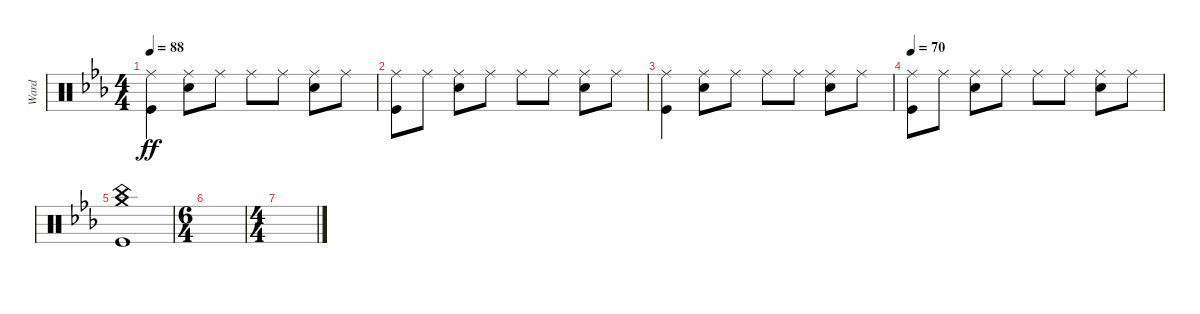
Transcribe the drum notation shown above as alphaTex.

\track ("Ward" "Ward") {instrument percussion}
\staff {score}
\articulation defaults
\ts (4 4)
\tempo 88
\clef neutral
\ks cminor
("Ride (middle)" "Kick (hit)").4{dy ff} ("Ride (middle)" "Snare (hit) 2").8 "Ride (middle)".8 "Ride (middle)".8 "Ride (middle)".8 ("Ride (middle)" "Snare (hit) 2").8 "Ride (middle)".8 |
("Ride (middle)" "Kick (hit)").8 "Ride (middle)".8 ("Ride (middle)" "Snare (hit) 2").8 "Ride (middle)".8 "Ride (middle)".8 "Ride (middle)".8 ("Ride (middle)" "Snare (hit) 2").8 "Ride (middle)".8 |
("Ride (middle)" "Kick (hit)").4 ("Ride (middle)" "Snare (hit) 2").8 "Ride (middle)".8 "Ride (middle)".8 "Ride (middle)".8 ("Ride (middle)" "Snare (hit) 2").8 "Ride (middle)".8 |
\tempo 70
("Ride (middle)" "Kick (hit)").8 "Ride (middle)".8 ("Ride (middle)" "Snare (hit) 2").8 "Ride (middle)".8 "Ride (middle)".8 "Ride (middle)".8 ("Ride (middle)" "Snare (hit) 2").8 "Ride (middle)".8 |
("Crash medium (hit)" "China (hit)" "Kick (hit)").1 |
\ts (6 4)
|
\ts (4 4)
